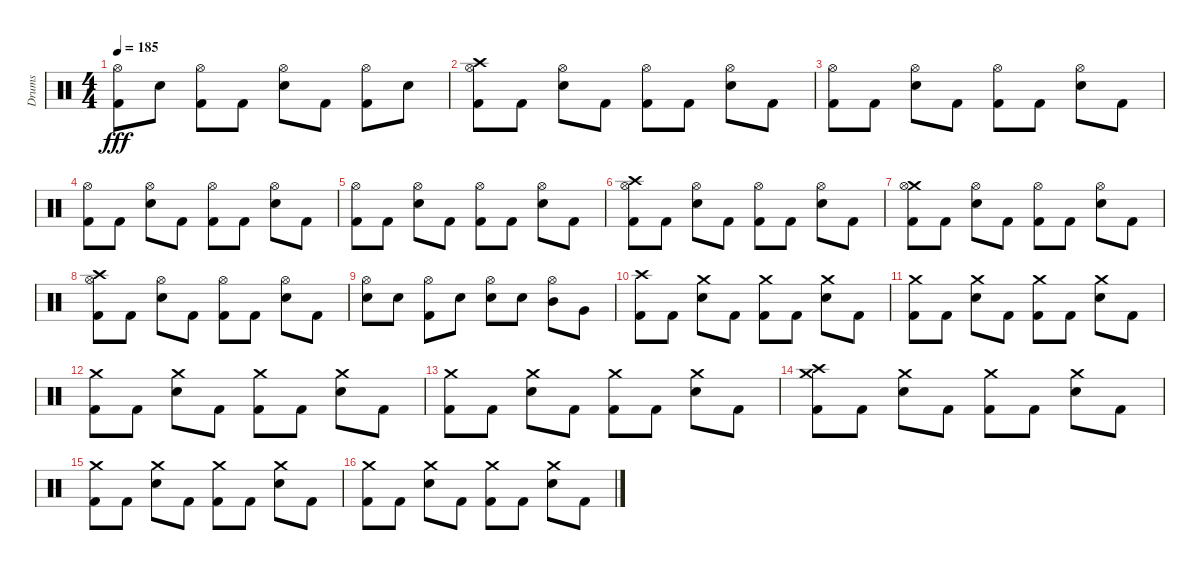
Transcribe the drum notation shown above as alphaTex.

\track ("Drums" "Drums") {instrument percussion}
\staff {score}
\articulation defaults
\ts (4 4)
\tempo 185
\clef neutral
\ks c
("Kick (hit) 2" "Hi-Hat (open)").8{dy fff} "Snare (hit) 2".8 ("Kick (hit) 2" "Hi-Hat (open)").8 "Kick (hit) 2".8 ("Snare (hit) 2" "Hi-Hat (open)").8 "Kick (hit) 2".8{volume 8} ("Kick (hit) 2" "Hi-Hat (open)").8 "Snare (hit) 2".8 |
("Kick (hit) 2" "Crash high (hit)" "Hi-Hat (open)").8 "Kick (hit) 2".8 ("Snare (hit) 2" "Hi-Hat (open)").8 "Kick (hit) 2".8 ("Kick (hit) 2" "Hi-Hat (open)").8 "Kick (hit) 2".8 ("Snare (hit) 2" "Hi-Hat (open)").8 "Kick (hit) 2".8 |
("Kick (hit) 2" "Hi-Hat (open)").8 "Kick (hit) 2".8 ("Snare (hit) 2" "Hi-Hat (open)").8 "Kick (hit) 2".8 ("Kick (hit) 2" "Hi-Hat (open)").8 "Kick (hit) 2".8 ("Snare (hit) 2" "Hi-Hat (open)").8{volume 7} "Kick (hit) 2".8 |
("Kick (hit) 2" "Hi-Hat (open)").8 "Kick (hit) 2".8 ("Snare (hit) 2" "Hi-Hat (open)").8 "Kick (hit) 2".8 ("Kick (hit) 2" "Hi-Hat (open)").8 "Kick (hit) 2".8 ("Snare (hit) 2" "Hi-Hat (open)").8 "Kick (hit) 2".8 |
("Kick (hit) 2" "Hi-Hat (open)").8 "Kick (hit) 2".8 ("Snare (hit) 2" "Hi-Hat (open)").8 "Kick (hit) 2".8 ("Kick (hit) 2" "Hi-Hat (open)").8{volume 6} "Kick (hit) 2".8 ("Snare (hit) 2" "Hi-Hat (open)").8 "Kick (hit) 2".8 |
("Kick (hit) 2" "Crash high (hit)" "Hi-Hat (open)").8 "Kick (hit) 2".8 ("Snare (hit) 2" "Hi-Hat (open)").8 "Kick (hit) 2".8 ("Kick (hit) 2" "Hi-Hat (open)").8 "Kick (hit) 2".8 ("Snare (hit) 2" "Hi-Hat (open)").8 "Kick (hit) 2".8 |
("Kick (hit) 2" "Crash medium (hit)" "Hi-Hat (open)").8 "Kick (hit) 2".8 ("Snare (hit) 2" "Hi-Hat (open)").8 "Kick (hit) 2".8 ("Kick (hit) 2" "Hi-Hat (open)").8 "Kick (hit) 2".8{volume 5} ("Snare (hit) 2" "Hi-Hat (open)").8 "Kick (hit) 2".8 |
("Kick (hit) 2" "Crash high (hit)" "Hi-Hat (open)").8 "Kick (hit) 2".8 ("Snare (hit) 2" "Hi-Hat (open)").8 "Kick (hit) 2".8 ("Kick (hit) 2" "Hi-Hat (open)").8 "Kick (hit) 2".8 ("Snare (hit) 2" "Hi-Hat (open)").8 "Kick (hit) 2".8 |
("Snare (hit) 2" "Hi-Hat (open)").8 "Snare (hit) 2".8 ("Kick (hit) 2" "Hi-Hat (open)").8 "Snare (hit) 2".8{volume 4} ("Snare (hit) 2" "Hi-Hat (open)").8 "Snare (hit) 2".8 ("Mid Tom (hit)" "Hi-Hat (open)").8 "Very Low Tom (hit)".8 |
("Kick (hit) 2" "Crash high (hit)").8 "Kick (hit) 2".8 ("Snare (hit) 2" "Crash medium (hit)").8 "Kick (hit) 2".8 ("Kick (hit) 2" "Crash medium (hit)").8 "Kick (hit) 2".8 ("Snare (hit) 2" "Crash medium (hit)").8 "Kick (hit) 2".8 |
("Kick (hit) 2" "Crash medium (hit)").8 "Kick (hit) 2".8 ("Snare (hit) 2" "Crash medium (hit)").8 "Kick (hit) 2".8 ("Kick (hit) 2" "Crash medium (hit)").8{volume 3} "Kick (hit) 2".8 ("Snare (hit) 2" "Crash medium (hit)").8 "Kick (hit) 2".8 |
("Kick (hit) 2" "Crash medium (hit)").8 "Kick (hit) 2".8 ("Snare (hit) 2" "Crash medium (hit)").8 "Kick (hit) 2".8 ("Kick (hit) 2" "Crash medium (hit)").8 "Kick (hit) 2".8 ("Snare (hit) 2" "Crash medium (hit)").8 "Kick (hit) 2".8 |
("Kick (hit) 2" "Crash medium (hit)").8 "Kick (hit) 2".8{volume 2} ("Snare (hit) 2" "Crash medium (hit)").8 "Kick (hit) 2".8 ("Kick (hit) 2" "Crash medium (hit)").8 "Kick (hit) 2".8 ("Snare (hit) 2" "Crash medium (hit)").8 "Kick (hit) 2".8 |
("Kick (hit) 2" "Crash high (hit)" "Crash medium (hit)").8 "Kick (hit) 2".8 ("Snare (hit) 2" "Crash medium (hit)").8 "Kick (hit) 2".8 ("Kick (hit) 2" "Crash medium (hit)").8 "Kick (hit) 2".8 ("Snare (hit) 2" "Crash medium (hit)").8 "Kick (hit) 2".8 |
("Kick (hit) 2" "Crash medium (hit)").8 "Kick (hit) 2".8 ("Snare (hit) 2" "Crash medium (hit)").8 "Kick (hit) 2".8{volume 1} ("Kick (hit) 2" "Crash medium (hit)").8 "Kick (hit) 2".8 ("Snare (hit) 2" "Crash medium (hit)").8 "Kick (hit) 2".8 |
("Kick (hit) 2" "Crash medium (hit)").8 "Kick (hit) 2".8 ("Snare (hit) 2" "Crash medium (hit)").8 "Kick (hit) 2".8 ("Kick (hit) 2" "Crash medium (hit)").8 "Kick (hit) 2".8 ("Snare (hit) 2" "Crash medium (hit)").8 "Kick (hit) 2".8
